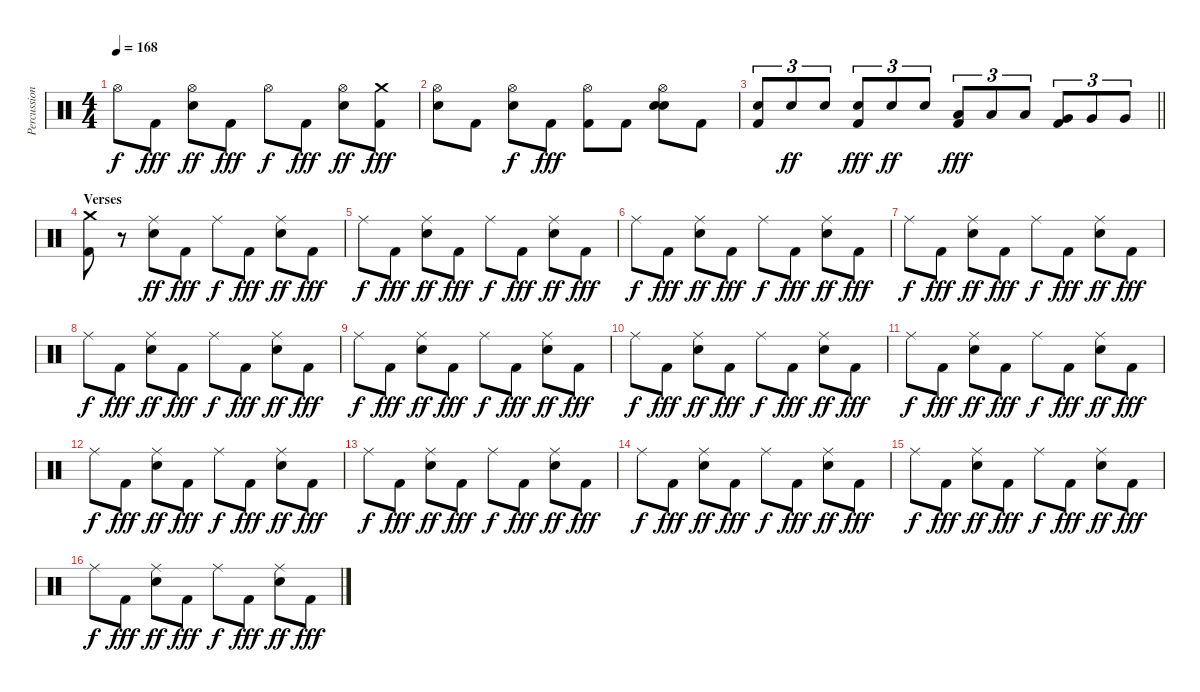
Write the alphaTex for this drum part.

\track ("Percussion" "Percussion") {instrument percussion}
\staff {score}
\articulation defaults
\ts (4 4)
\tempo 168
\clef neutral
\ks c "Hi-Hat (open)".8{dy f} "Kick (hit) 2".8{dy fff}
("Hi-Hat (open)" "Electric Snare (hit)").8{dy ff} "Kick (hit) 2".8{dy fff} "Hi-Hat (open)".8{dy f} "Kick (hit) 2".8{dy fff} ("Hi-Hat (open)" "Electric Snare (hit)").8{dy ff} ("Crash medium (hit)" "Kick (hit) 2").8{dy fff} |
("Hi-Hat (open)" "Snare (hit)").8 "Kick (hit) 2".8 ("Hi-Hat (open)" "Electric Snare (hit)").8{dy f} "Kick (hit) 2".8{dy fff} ("Hi-Hat (open)" "Kick (hit) 2").8 "Kick (hit) 2".8 ("Hi-Hat (open)" "Electric Snare (hit)" "Snare (hit)").8 "Kick (hit) 2".8 |
\barLineRight lightlight
("Electric Snare (hit)" "Kick (hit) 2").8{tu (3 2)} "Electric Snare (hit)".8{tu (3 2) dy ff} "Electric Snare (hit)".8{tu (3 2)} ("Electric Snare (hit)" "Kick (hit) 2").8{tu (3 2) dy fff} "Electric Snare (hit)".8{tu (3 2) dy ff} "Electric Snare (hit)".8{tu (3 2)} ("Low Tom (hit)" "Kick (hit) 2").8{tu (3 2) dy fff} "Low Tom (hit)".8{tu (3 2)} "Low Tom (hit)".8{tu (3 2)} ("Very Low Tom (hit)" "Kick (hit) 2").8{tu (3 2)} "Very Low Tom (hit)".8{tu (3 2)} "Very Low Tom (hit)".8{tu (3 2)} |
\section ("" "Verses")
("Crash medium (hit)" "Kick (hit) 2").8 r.8 ("Ride (middle)" "Electric Snare (hit)").8{dy ff} "Kick (hit) 2".8{dy fff} "Ride (middle)".8{dy f} "Kick (hit) 2".8{dy fff} ("Ride (middle)" "Electric Snare (hit)").8{dy ff} "Kick (hit) 2".8{dy fff} |
"Ride (middle)".8{dy f} "Kick (hit) 2".8{dy fff} ("Ride (middle)" "Electric Snare (hit)").8{dy ff} "Kick (hit) 2".8{dy fff} "Ride (middle)".8{dy f} "Kick (hit) 2".8{dy fff} ("Ride (middle)" "Electric Snare (hit)").8{dy ff} "Kick (hit) 2".8{dy fff} |
"Ride (middle)".8{dy f} "Kick (hit) 2".8{dy fff} ("Ride (middle)" "Electric Snare (hit)").8{dy ff} "Kick (hit) 2".8{dy fff} "Ride (middle)".8{dy f} "Kick (hit) 2".8{dy fff} ("Ride (middle)" "Electric Snare (hit)").8{dy ff} "Kick (hit) 2".8{dy fff} |
"Ride (middle)".8{dy f} "Kick (hit) 2".8{dy fff} ("Ride (middle)" "Electric Snare (hit)").8{dy ff} "Kick (hit) 2".8{dy fff} "Ride (middle)".8{dy f} "Kick (hit) 2".8{dy fff} ("Ride (middle)" "Electric Snare (hit)").8{dy ff} "Kick (hit) 2".8{dy fff} |
"Ride (middle)".8{dy f} "Kick (hit) 2".8{dy fff} ("Ride (middle)" "Electric Snare (hit)").8{dy ff} "Kick (hit) 2".8{dy fff} "Ride (middle)".8{dy f} "Kick (hit) 2".8{dy fff} ("Ride (middle)" "Electric Snare (hit)").8{dy ff} "Kick (hit) 2".8{dy fff} |
"Ride (middle)".8{dy f} "Kick (hit) 2".8{dy fff} ("Ride (middle)" "Electric Snare (hit)").8{dy ff} "Kick (hit) 2".8{dy fff} "Ride (middle)".8{dy f} "Kick (hit) 2".8{dy fff} ("Ride (middle)" "Electric Snare (hit)").8{dy ff} "Kick (hit) 2".8{dy fff} |
"Ride (middle)".8{dy f} "Kick (hit) 2".8{dy fff} ("Ride (middle)" "Electric Snare (hit)").8{dy ff} "Kick (hit) 2".8{dy fff} "Ride (middle)".8{dy f} "Kick (hit) 2".8{dy fff} ("Ride (middle)" "Electric Snare (hit)").8{dy ff} "Kick (hit) 2".8{dy fff} |
"Ride (middle)".8{dy f} "Kick (hit) 2".8{dy fff} ("Ride (middle)" "Electric Snare (hit)").8{dy ff} "Kick (hit) 2".8{dy fff} "Ride (middle)".8{dy f} "Kick (hit) 2".8{dy fff} ("Ride (middle)" "Electric Snare (hit)").8{dy ff} "Kick (hit) 2".8{dy fff} |
"Ride (middle)".8{dy f} "Kick (hit) 2".8{dy fff} ("Ride (middle)" "Electric Snare (hit)").8{dy ff} "Kick (hit) 2".8{dy fff} "Ride (middle)".8{dy f} "Kick (hit) 2".8{dy fff} ("Ride (middle)" "Electric Snare (hit)").8{dy ff} "Kick (hit) 2".8{dy fff} |
"Ride (middle)".8{dy f} "Kick (hit) 2".8{dy fff} ("Ride (middle)" "Electric Snare (hit)").8{dy ff} "Kick (hit) 2".8{dy fff} "Ride (middle)".8{dy f} "Kick (hit) 2".8{dy fff} ("Ride (middle)" "Electric Snare (hit)").8{dy ff} "Kick (hit) 2".8{dy fff} |
"Ride (middle)".8{dy f} "Kick (hit) 2".8{dy fff} ("Ride (middle)" "Electric Snare (hit)").8{dy ff} "Kick (hit) 2".8{dy fff} "Ride (middle)".8{dy f} "Kick (hit) 2".8{dy fff} ("Ride (middle)" "Electric Snare (hit)").8{dy ff} "Kick (hit) 2".8{dy fff} |
"Ride (middle)".8{dy f} "Kick (hit) 2".8{dy fff} ("Ride (middle)" "Electric Snare (hit)").8{dy ff} "Kick (hit) 2".8{dy fff} "Ride (middle)".8{dy f} "Kick (hit) 2".8{dy fff} ("Ride (middle)" "Electric Snare (hit)").8{dy ff} "Kick (hit) 2".8{dy fff} |
"Ride (middle)".8{dy f} "Kick (hit) 2".8{dy fff} ("Ride (middle)" "Electric Snare (hit)").8{dy ff} "Kick (hit) 2".8{dy fff} "Ride (middle)".8{dy f} "Kick (hit) 2".8{dy fff} ("Ride (middle)" "Electric Snare (hit)").8{dy ff} "Kick (hit) 2".8{dy fff}
